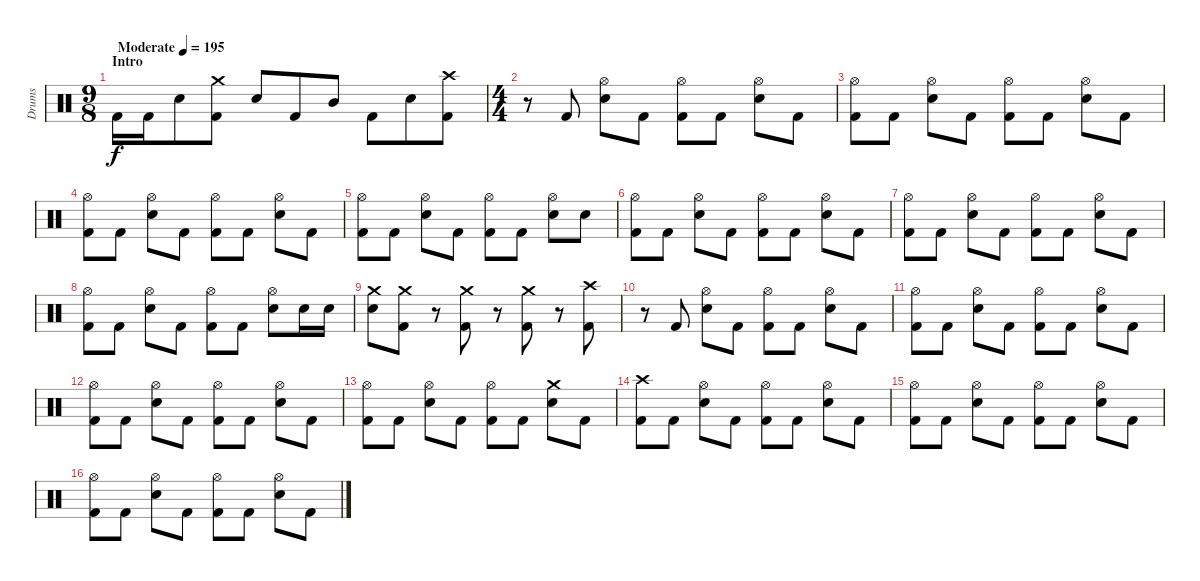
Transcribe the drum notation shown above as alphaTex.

\track ("Drums" "Drums") {instrument percussion}
\staff {score}
\articulation defaults
\ts (9 8)
\section ("" "Intro")
\tempo (195 "Moderate")
\clef neutral
\ks c "Kick (hit) 2".16{dy f} "Kick (hit) 2".16 "Electric Snare (hit)".8
("Crash medium (hit)" "Kick (hit) 2").8 "Electric Snare (hit)".8 "Kick (hit) 2".8 "Mid Tom (hit)".8 "Kick (hit) 2".8 "Electric Snare (hit)".8 ("Crash high (hit)" "Kick (hit) 2").8 |
\ts (4 4)
r.8 "Kick (hit) 2".8 ("Hi-Hat (open)" "Electric Snare (hit)").8 "Kick (hit) 2".8 ("Hi-Hat (open)" "Kick (hit) 2").8 "Kick (hit) 2".8 ("Hi-Hat (open)" "Electric Snare (hit)").8 "Kick (hit) 2".8 |
("Hi-Hat (open)" "Kick (hit) 2").8 "Kick (hit) 2".8 ("Hi-Hat (open)" "Electric Snare (hit)").8 "Kick (hit) 2".8 ("Hi-Hat (open)" "Kick (hit) 2").8 "Kick (hit) 2".8 ("Hi-Hat (open)" "Electric Snare (hit)").8 "Kick (hit) 2".8 |
("Hi-Hat (open)" "Kick (hit) 2").8 "Kick (hit) 2".8 ("Hi-Hat (open)" "Electric Snare (hit)").8 "Kick (hit) 2".8 ("Hi-Hat (open)" "Kick (hit) 2").8 "Kick (hit) 2".8 ("Hi-Hat (open)" "Electric Snare (hit)").8 "Kick (hit) 2".8 |
("Hi-Hat (open)" "Kick (hit) 2").8 "Kick (hit) 2".8 ("Hi-Hat (open)" "Electric Snare (hit)").8 "Kick (hit) 2".8 ("Hi-Hat (open)" "Kick (hit) 2").8 "Kick (hit) 2".8 ("Hi-Hat (open)" "Electric Snare (hit)").8 "Electric Snare (hit)".8 |
("Hi-Hat (open)" "Kick (hit) 2").8 "Kick (hit) 2".8 ("Hi-Hat (open)" "Electric Snare (hit)").8 "Kick (hit) 2".8 ("Hi-Hat (open)" "Kick (hit) 2").8 "Kick (hit) 2".8 ("Hi-Hat (open)" "Electric Snare (hit)").8 "Kick (hit) 2".8 |
("Hi-Hat (open)" "Kick (hit) 2").8 "Kick (hit) 2".8 ("Hi-Hat (open)" "Electric Snare (hit)").8 "Kick (hit) 2".8 ("Hi-Hat (open)" "Kick (hit) 2").8 "Kick (hit) 2".8 ("Hi-Hat (open)" "Electric Snare (hit)").8 "Kick (hit) 2".8 |
("Hi-Hat (open)" "Kick (hit) 2").8 "Kick (hit) 2".8 ("Hi-Hat (open)" "Electric Snare (hit)").8 "Kick (hit) 2".8 ("Hi-Hat (open)" "Kick (hit) 2").8 "Kick (hit) 2".8 ("Hi-Hat (open)" "Electric Snare (hit)").8 "Electric Snare (hit)".16 "Electric Snare (hit)".16 |
("Crash medium (hit)" "Electric Snare (hit)").8 ("Crash medium (hit)" "Kick (hit) 2").8 r.8 ("Crash medium (hit)" "Kick (hit) 2").8 r.8 ("Crash medium (hit)" "Kick (hit) 2").8 r.8 ("Crash high (hit)" "Kick (hit) 2").8 |
r.8 "Kick (hit) 2".8 ("Hi-Hat (open)" "Electric Snare (hit)").8 "Kick (hit) 2".8 ("Hi-Hat (open)" "Kick (hit) 2").8 "Kick (hit) 2".8 ("Hi-Hat (open)" "Electric Snare (hit)").8 "Kick (hit) 2".8 |
("Hi-Hat (open)" "Kick (hit) 2").8 "Kick (hit) 2".8 ("Hi-Hat (open)" "Electric Snare (hit)").8 "Kick (hit) 2".8 ("Hi-Hat (open)" "Kick (hit) 2").8 "Kick (hit) 2".8 ("Hi-Hat (open)" "Electric Snare (hit)").8 "Kick (hit) 2".8 |
("Hi-Hat (open)" "Kick (hit) 2").8 "Kick (hit) 2".8 ("Hi-Hat (open)" "Electric Snare (hit)").8 "Kick (hit) 2".8 ("Hi-Hat (open)" "Kick (hit) 2").8 "Kick (hit) 2".8 ("Hi-Hat (open)" "Electric Snare (hit)").8 "Kick (hit) 2".8 |
("Hi-Hat (open)" "Kick (hit) 2").8 "Kick (hit) 2".8 ("Hi-Hat (open)" "Electric Snare (hit)").8 "Kick (hit) 2".8 ("Hi-Hat (open)" "Kick (hit) 2").8 "Kick (hit) 2".8 ("Crash medium (hit)" "Electric Snare (hit)").8 "Kick (hit) 2".8 |
("Crash high (hit)" "Kick (hit) 2").8 "Kick (hit) 2".8 ("Hi-Hat (open)" "Electric Snare (hit)").8 "Kick (hit) 2".8 ("Hi-Hat (open)" "Kick (hit) 2").8 "Kick (hit) 2".8 ("Hi-Hat (open)" "Electric Snare (hit)").8 "Kick (hit) 2".8 |
("Hi-Hat (open)" "Kick (hit) 2").8 "Kick (hit) 2".8 ("Hi-Hat (open)" "Electric Snare (hit)").8 "Kick (hit) 2".8 ("Hi-Hat (open)" "Kick (hit) 2").8 "Kick (hit) 2".8 ("Hi-Hat (open)" "Electric Snare (hit)").8 "Kick (hit) 2".8 |
("Hi-Hat (open)" "Kick (hit) 2").8 "Kick (hit) 2".8 ("Hi-Hat (open)" "Electric Snare (hit)").8 "Kick (hit) 2".8 ("Hi-Hat (open)" "Kick (hit) 2").8 "Kick (hit) 2".8 ("Hi-Hat (open)" "Electric Snare (hit)").8 "Kick (hit) 2".8
